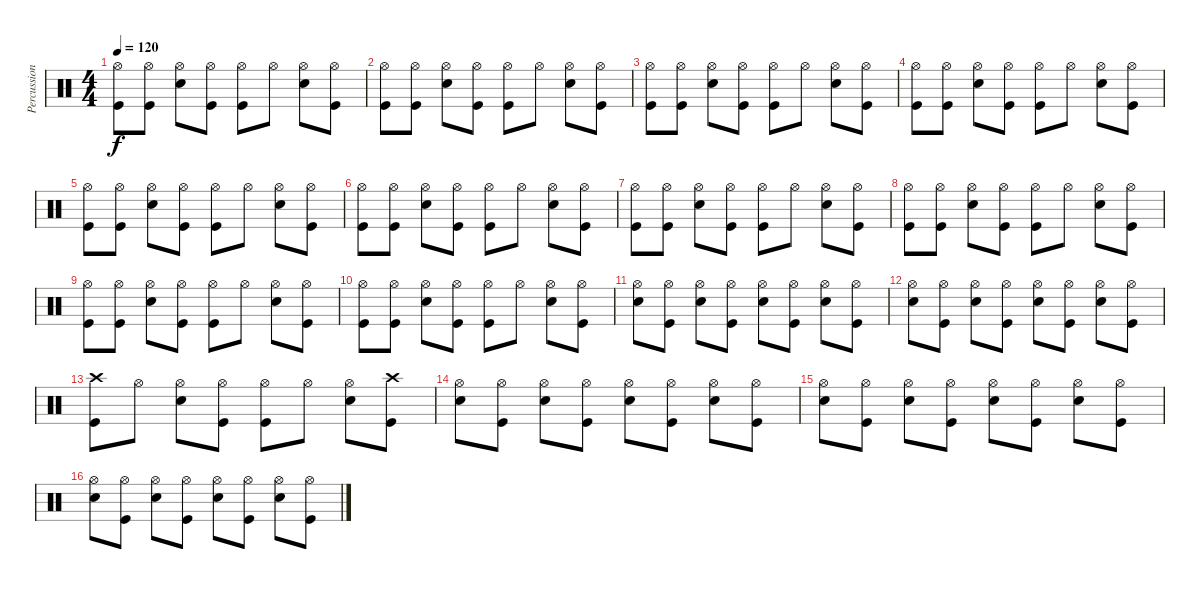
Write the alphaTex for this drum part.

\track ("Percussion" "Percussion") {instrument percussion}
\staff {score}
\articulation defaults
\ts (4 4)
\tempo 120
\clef neutral
\ks c
("Hi-Hat (open)" "Kick (hit)").8{dy f} ("Hi-Hat (open)" "Kick (hit)").8 ("Hi-Hat (open)" "Snare (hit) 2").8 ("Hi-Hat (open)" "Kick (hit)").8 ("Hi-Hat (open)" "Kick (hit)").8 "Hi-Hat (open)".8 ("Snare (hit) 2" "Hi-Hat (open)").8 ("Hi-Hat (open)" "Kick (hit)").8 |
("Hi-Hat (open)" "Kick (hit)").8 ("Hi-Hat (open)" "Kick (hit)").8 ("Hi-Hat (open)" "Snare (hit) 2").8 ("Hi-Hat (open)" "Kick (hit)").8 ("Hi-Hat (open)" "Kick (hit)").8 "Hi-Hat (open)".8 ("Snare (hit) 2" "Hi-Hat (open)").8 ("Hi-Hat (open)" "Kick (hit)").8 |
("Hi-Hat (open)" "Kick (hit)").8 ("Hi-Hat (open)" "Kick (hit)").8 ("Hi-Hat (open)" "Snare (hit) 2").8 ("Hi-Hat (open)" "Kick (hit)").8 ("Hi-Hat (open)" "Kick (hit)").8 "Hi-Hat (open)".8 ("Snare (hit) 2" "Hi-Hat (open)").8 ("Hi-Hat (open)" "Kick (hit)").8 |
("Hi-Hat (open)" "Kick (hit)").8 ("Hi-Hat (open)" "Kick (hit)").8 ("Hi-Hat (open)" "Snare (hit) 2").8 ("Hi-Hat (open)" "Kick (hit)").8 ("Hi-Hat (open)" "Kick (hit)").8 "Hi-Hat (open)".8 ("Snare (hit) 2" "Hi-Hat (open)").8 ("Hi-Hat (open)" "Kick (hit)").8 |
("Hi-Hat (open)" "Kick (hit)").8 ("Hi-Hat (open)" "Kick (hit)").8 ("Hi-Hat (open)" "Snare (hit) 2").8 ("Hi-Hat (open)" "Kick (hit)").8 ("Hi-Hat (open)" "Kick (hit)").8 "Hi-Hat (open)".8 ("Snare (hit) 2" "Hi-Hat (open)").8 ("Hi-Hat (open)" "Kick (hit)").8 |
("Hi-Hat (open)" "Kick (hit)").8 ("Hi-Hat (open)" "Kick (hit)").8 ("Hi-Hat (open)" "Snare (hit) 2").8 ("Hi-Hat (open)" "Kick (hit)").8 ("Hi-Hat (open)" "Kick (hit)").8 "Hi-Hat (open)".8 ("Snare (hit) 2" "Hi-Hat (open)").8 ("Hi-Hat (open)" "Kick (hit)").8 |
("Hi-Hat (open)" "Kick (hit)").8 ("Hi-Hat (open)" "Kick (hit)").8 ("Hi-Hat (open)" "Snare (hit) 2").8 ("Hi-Hat (open)" "Kick (hit)").8 ("Hi-Hat (open)" "Kick (hit)").8 "Hi-Hat (open)".8 ("Snare (hit) 2" "Hi-Hat (open)").8 ("Hi-Hat (open)" "Kick (hit)").8 |
("Hi-Hat (open)" "Kick (hit)").8 ("Hi-Hat (open)" "Kick (hit)").8 ("Hi-Hat (open)" "Snare (hit) 2").8 ("Hi-Hat (open)" "Kick (hit)").8 ("Hi-Hat (open)" "Kick (hit)").8 "Hi-Hat (open)".8 ("Snare (hit) 2" "Hi-Hat (open)").8 ("Hi-Hat (open)" "Kick (hit)").8 |
("Hi-Hat (open)" "Kick (hit)").8 ("Hi-Hat (open)" "Kick (hit)").8 ("Hi-Hat (open)" "Snare (hit) 2").8 ("Hi-Hat (open)" "Kick (hit)").8 ("Hi-Hat (open)" "Kick (hit)").8 "Hi-Hat (open)".8 ("Snare (hit) 2" "Hi-Hat (open)").8 ("Hi-Hat (open)" "Kick (hit)").8 |
("Hi-Hat (open)" "Kick (hit)").8 ("Hi-Hat (open)" "Kick (hit)").8 ("Hi-Hat (open)" "Snare (hit) 2").8 ("Hi-Hat (open)" "Kick (hit)").8 ("Hi-Hat (open)" "Kick (hit)").8 "Hi-Hat (open)".8 ("Snare (hit) 2" "Hi-Hat (open)").8 ("Hi-Hat (open)" "Kick (hit)").8 |
("Hi-Hat (open)" "Snare (hit) 2").8 ("Hi-Hat (open)" "Kick (hit)").8 ("Hi-Hat (open)" "Snare (hit) 2").8 ("Hi-Hat (open)" "Kick (hit)").8 ("Hi-Hat (open)" "Snare (hit) 2").8 ("Hi-Hat (open)" "Kick (hit)").8 ("Hi-Hat (open)" "Snare (hit) 2").8 ("Hi-Hat (open)" "Kick (hit)").8 |
("Hi-Hat (open)" "Snare (hit) 2").8 ("Hi-Hat (open)" "Kick (hit)").8 ("Hi-Hat (open)" "Snare (hit) 2").8 ("Hi-Hat (open)" "Kick (hit)").8 ("Hi-Hat (open)" "Snare (hit) 2").8 ("Hi-Hat (open)" "Kick (hit)").8 ("Hi-Hat (open)" "Snare (hit) 2").8 ("Hi-Hat (open)" "Kick (hit)").8 |
("Crash high (hit)" "Kick (hit)").8 "Hi-Hat (open)".8 ("Hi-Hat (open)" "Snare (hit) 2").8 ("Hi-Hat (open)" "Kick (hit)").8 ("Hi-Hat (open)" "Kick (hit)").8 "Hi-Hat (open)".8 ("Hi-Hat (open)" "Snare (hit) 2").8 ("Crash high (hit)" "Kick (hit)").8 |
("Hi-Hat (open)" "Snare (hit) 2").8 ("Hi-Hat (open)" "Kick (hit)").8 ("Hi-Hat (open)" "Snare (hit) 2").8 ("Hi-Hat (open)" "Kick (hit)").8 ("Hi-Hat (open)" "Snare (hit) 2").8 ("Hi-Hat (open)" "Kick (hit)").8 ("Hi-Hat (open)" "Snare (hit) 2").8 ("Hi-Hat (open)" "Kick (hit)").8 |
("Hi-Hat (open)" "Snare (hit) 2").8 ("Hi-Hat (open)" "Kick (hit)").8 ("Hi-Hat (open)" "Snare (hit) 2").8 ("Hi-Hat (open)" "Kick (hit)").8 ("Hi-Hat (open)" "Snare (hit) 2").8 ("Hi-Hat (open)" "Kick (hit)").8 ("Hi-Hat (open)" "Snare (hit) 2").8 ("Hi-Hat (open)" "Kick (hit)").8 |
("Hi-Hat (open)" "Snare (hit) 2").8 ("Hi-Hat (open)" "Kick (hit)").8 ("Hi-Hat (open)" "Snare (hit) 2").8 ("Hi-Hat (open)" "Kick (hit)").8 ("Hi-Hat (open)" "Snare (hit) 2").8 ("Hi-Hat (open)" "Kick (hit)").8 ("Hi-Hat (open)" "Snare (hit) 2").8 ("Hi-Hat (open)" "Kick (hit)").8
